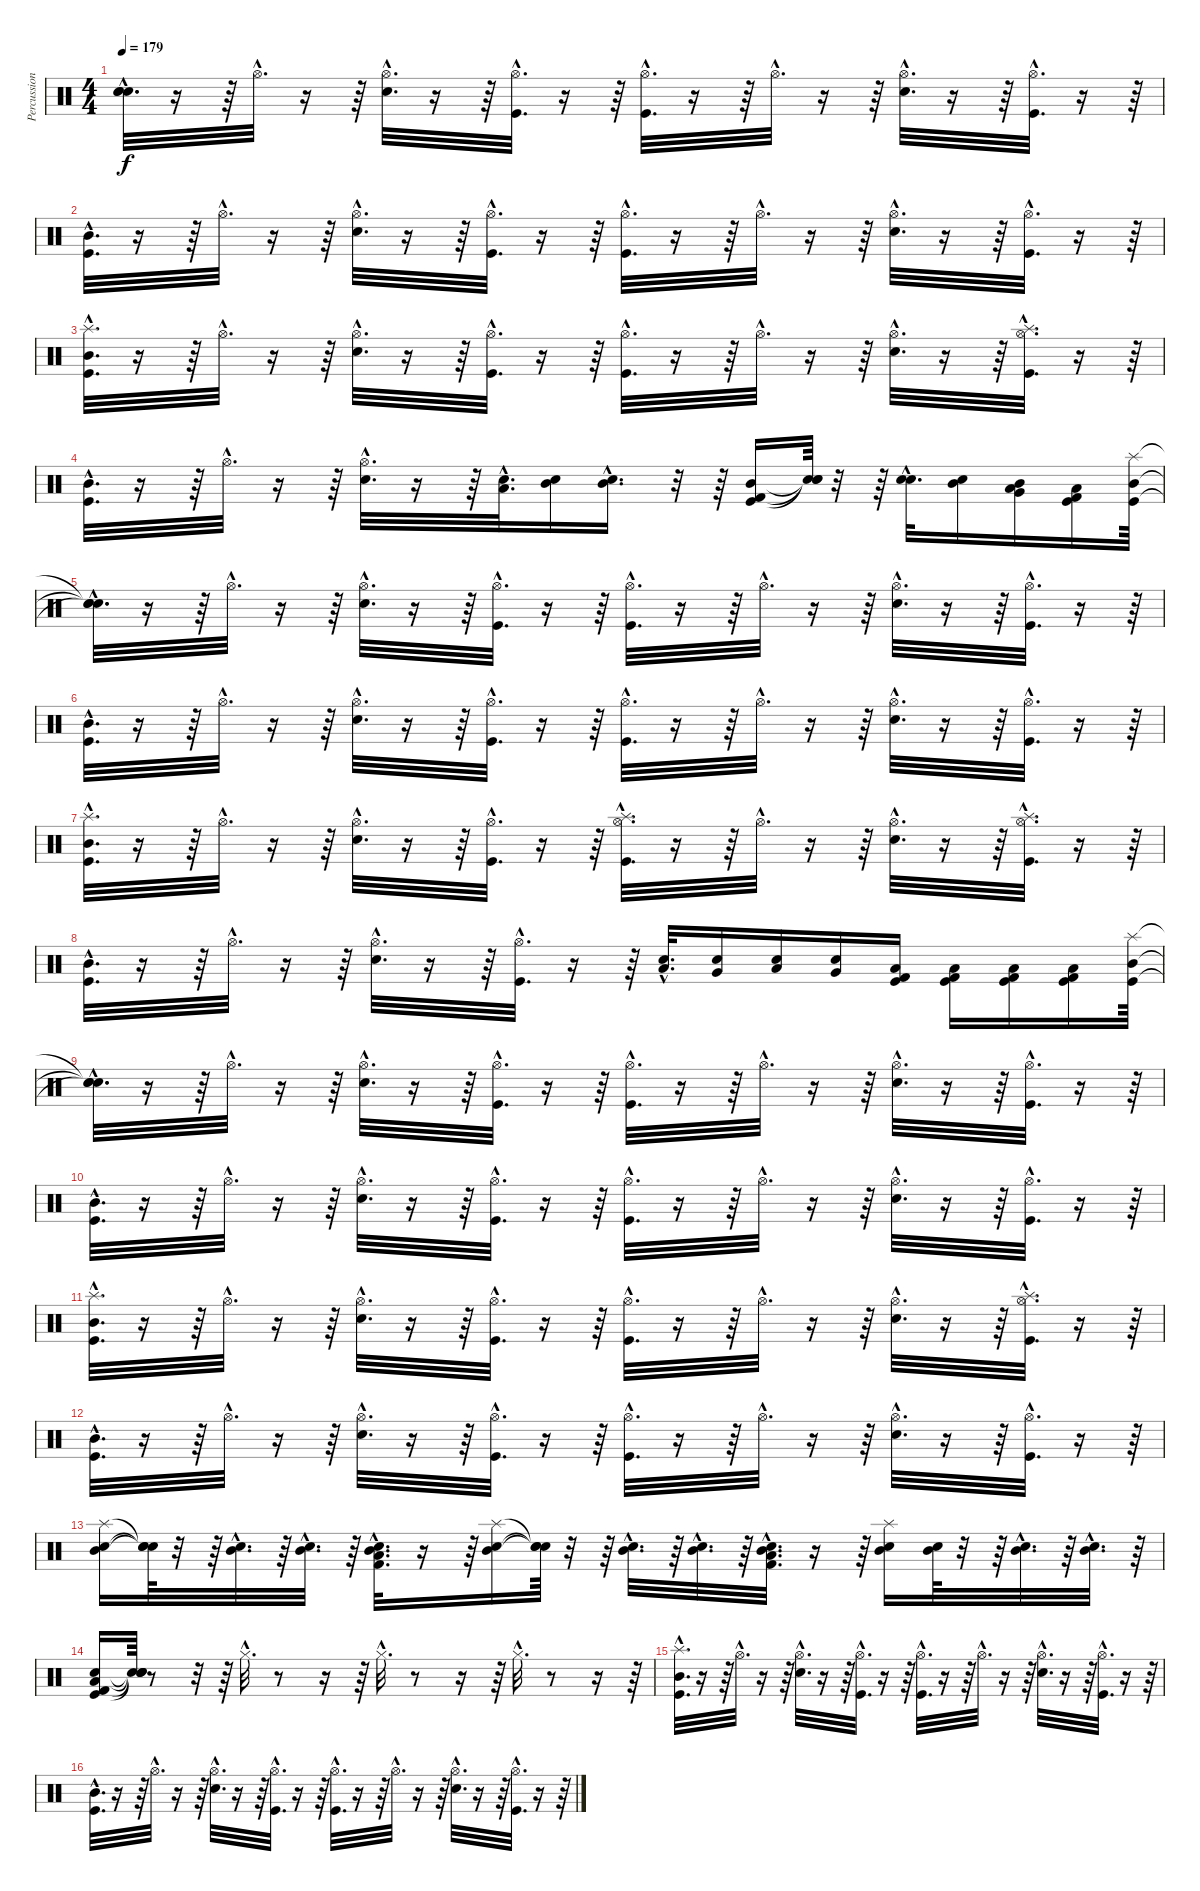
\track ("Percussion" "Percussion") {instrument percussion}
\staff {score}
\articulation defaults
\ts (4 4)
\tempo 179
\clef neutral
\ks c
("Snare (hit)"{hac t} "Snare (hit)"{hac t} "Snare (hit)"{hac t}).32{d dy f} r.16 r.64 "Hi-Hat (open)"{hac}.32{d} r.16 r.64 ("Hi-Hat (open)"{hac} "Snare (hit) 2"{hac}).32{d} r.16 r.64 ("Hi-Hat (open)"{hac} "Kick (hit)"{hac}).32{d} r.16 r.64 ("Hi-Hat (open)"{hac} "Kick (hit)"{hac}).32{d} r.16 r.64 "Hi-Hat (open)"{hac}.32{d} r.16 r.64 ("Hi-Hat (open)"{hac} "Snare (hit) 2"{hac}).32{d} r.16 r.64 ("Hi-Hat (open)"{hac} "Kick (hit)"{hac}).32{d} r.16 r.64 |
("Mid Tom (hit)"{hac} "Kick (hit)"{hac}).32{d} r.16 r.64 "Hi-Hat (open)"{hac}.32{d} r.16 r.64 ("Hi-Hat (open)"{hac} "Snare (hit) 2"{hac}).32{d} r.16 r.64 ("Hi-Hat (open)"{hac} "Kick (hit)"{hac}).32{d} r.16 r.64 ("Hi-Hat (open)"{hac} "Kick (hit)"{hac}).32{d} r.16 r.64 "Hi-Hat (open)"{hac}.32{d} r.16 r.64 ("Hi-Hat (open)"{hac} "Snare (hit) 2"{hac}).32{d} r.16 r.64 ("Hi-Hat (open)"{hac} "Kick (hit)"{hac}).32{d} r.16 r.64 |
("Splash (hit)"{hac} "Mid Tom (hit)"{hac} "Kick (hit)"{hac}).32{d} r.16 r.64 "Hi-Hat (open)"{hac}.32{d} r.16 r.64 ("Hi-Hat (open)"{hac} "Snare (hit) 2"{hac}).32{d} r.16 r.64 ("Hi-Hat (open)"{hac} "Kick (hit)"{hac}).32{d} r.16 r.64 ("Hi-Hat (open)"{hac} "Kick (hit)"{hac}).32{d} r.16 r.64 "Hi-Hat (open)"{hac}.32{d} r.16 r.64 ("Hi-Hat (open)"{hac} "Snare (hit) 2"{hac}).32{d} r.16 r.64 ("Splash (hit)"{hac} "Hi-Hat (open)"{hac} "Kick (hit)"{hac}).32{d} r.16 r.64 |
("Mid Tom (hit)"{hac} "Kick (hit)"{hac}).32{d} r.16 r.64 "Hi-Hat (open)"{hac}.32{d} r.16 r.64 ("Hi-Hat (open)"{hac} "Snare (hit) 2"{hac}).32{d} r.16 r.64 ("Snare (hit) 2"{hac} "Low Tom (hit)"{hac}).32{d} ("Snare (hit) 2" "Mid Tom (hit)").16 ("Snare (hit) 2"{hac} "Mid Tom (hit)"{hac}).16{d} r.32 r.64 ("Mid Tom (hit)" "Kick (hit)" "Kick (hit) 2").16 ("Snare (hit)"{t} "Snare (hit)"{t} "Snare (hit)"{t}).64 r.32 r.64 ("Electric Snare (hit)"{hac} "Snare (hit) 2"{hac}).32{d} ("Snare (hit) 2" "Mid Tom (hit)").16 ("Very Low Tom (hit)" "Mid Tom (hit)" "Low Floor Tom (hit)").16 ("Kick (hit)" "Kick (hit) 2" "Low Tom (hit)").16 ("Splash (hit)" "Mid Tom (hit)" "Kick (hit)").64 |
("Snare (hit)"{hac t} "Snare (hit)"{hac t} "Snare (hit)"{hac t}).32{d} r.16 r.64 "Hi-Hat (open)"{hac}.32{d} r.16 r.64 ("Hi-Hat (open)"{hac} "Snare (hit) 2"{hac}).32{d} r.16 r.64 ("Hi-Hat (open)"{hac} "Kick (hit)"{hac}).32{d} r.16 r.64 ("Hi-Hat (open)"{hac} "Kick (hit)"{hac}).32{d} r.16 r.64 "Hi-Hat (open)"{hac}.32{d} r.16 r.64 ("Hi-Hat (open)"{hac} "Snare (hit) 2"{hac}).32{d} r.16 r.64 ("Hi-Hat (open)"{hac} "Kick (hit)"{hac}).32{d} r.16 r.64 |
("Mid Tom (hit)"{hac} "Kick (hit)"{hac}).32{d} r.16 r.64 "Hi-Hat (open)"{hac}.32{d} r.16 r.64 ("Hi-Hat (open)"{hac} "Snare (hit) 2"{hac}).32{d} r.16 r.64 ("Hi-Hat (open)"{hac} "Kick (hit)"{hac}).32{d} r.16 r.64 ("Hi-Hat (open)"{hac} "Kick (hit)"{hac}).32{d} r.16 r.64 "Hi-Hat (open)"{hac}.32{d} r.16 r.64 ("Hi-Hat (open)"{hac} "Snare (hit) 2"{hac}).32{d} r.16 r.64 ("Hi-Hat (open)"{hac} "Kick (hit)"{hac}).32{d} r.16 r.64 |
("Splash (hit)"{hac} "Mid Tom (hit)"{hac} "Kick (hit)"{hac}).32{d} r.16 r.64 "Hi-Hat (open)"{hac}.32{d} r.16 r.64 ("Hi-Hat (open)"{hac} "Snare (hit) 2"{hac}).32{d} r.16 r.64 ("Hi-Hat (open)"{hac} "Kick (hit)"{hac}).32{d} r.16 r.64 ("Splash (hit)"{hac} "Hi-Hat (open)"{hac} "Kick (hit)"{hac}).32{d} r.16 r.64 "Hi-Hat (open)"{hac}.32{d} r.16 r.64 ("Hi-Hat (open)"{hac} "Snare (hit) 2"{hac}).32{d} r.16 r.64 ("Splash (hit)"{hac} "Hi-Hat (open)"{hac} "Kick (hit)"{hac}).32{d} r.16 r.64 |
("Mid Tom (hit)"{hac} "Kick (hit)"{hac}).32{d} r.16 r.64 "Hi-Hat (open)"{hac}.32{d} r.16 r.64 ("Hi-Hat (open)"{hac} "Snare (hit) 2"{hac}).32{d} r.16 r.64 ("Hi-Hat (open)"{hac} "Kick (hit)"{hac}).32{d} r.16 r.64 ("Electric Snare (hit)"{hac} "Low Tom (hit)"{hac}).32{d} ("Electric Snare (hit)" "Very Low Tom (hit)").16 ("Electric Snare (hit)" "Low Tom (hit)").16 ("Electric Snare (hit)" "Very Low Tom (hit)").16 ("Kick (hit)" "Kick (hit) 2" "Low Floor Tom (hit)").16 ("Kick (hit)" "Kick (hit) 2" "Low Floor Tom (hit)").16 ("Kick (hit)" "Low Floor Tom (hit)" "Kick (hit) 2").16 ("Kick (hit)" "Kick (hit) 2" "Low Floor Tom (hit)").16 ("Splash (hit)" "Mid Tom (hit)" "Kick (hit)").64 |
("Snare (hit)"{hac t} "Snare (hit)"{hac t} "Snare (hit)"{hac t}).32{d} r.16 r.64 "Hi-Hat (open)"{hac}.32{d} r.16 r.64 ("Hi-Hat (open)"{hac} "Snare (hit) 2"{hac}).32{d} r.16 r.64 ("Hi-Hat (open)"{hac} "Kick (hit)"{hac}).32{d} r.16 r.64 ("Hi-Hat (open)"{hac} "Kick (hit)"{hac}).32{d} r.16 r.64 "Hi-Hat (open)"{hac}.32{d} r.16 r.64 ("Hi-Hat (open)"{hac} "Snare (hit) 2"{hac}).32{d} r.16 r.64 ("Hi-Hat (open)"{hac} "Kick (hit)"{hac}).32{d} r.16 r.64 |
("Mid Tom (hit)"{hac} "Kick (hit)"{hac}).32{d} r.16 r.64 "Hi-Hat (open)"{hac}.32{d} r.16 r.64 ("Hi-Hat (open)"{hac} "Snare (hit) 2"{hac}).32{d} r.16 r.64 ("Hi-Hat (open)"{hac} "Kick (hit)"{hac}).32{d} r.16 r.64 ("Hi-Hat (open)"{hac} "Kick (hit)"{hac}).32{d} r.16 r.64 "Hi-Hat (open)"{hac}.32{d} r.16 r.64 ("Hi-Hat (open)"{hac} "Snare (hit) 2"{hac}).32{d} r.16 r.64 ("Hi-Hat (open)"{hac} "Kick (hit)"{hac}).32{d} r.16 r.64 |
("Splash (hit)"{hac} "Mid Tom (hit)"{hac} "Kick (hit)"{hac}).32{d} r.16 r.64 "Hi-Hat (open)"{hac}.32{d} r.16 r.64 ("Hi-Hat (open)"{hac} "Snare (hit) 2"{hac}).32{d} r.16 r.64 ("Hi-Hat (open)"{hac} "Kick (hit)"{hac}).32{d} r.16 r.64 ("Hi-Hat (open)"{hac} "Kick (hit)"{hac}).32{d} r.16 r.64 "Hi-Hat (open)"{hac}.32{d} r.16 r.64 ("Hi-Hat (open)"{hac} "Snare (hit) 2"{hac}).32{d} r.16 r.64 ("Splash (hit)"{hac} "Hi-Hat (open)"{hac} "Kick (hit)"{hac}).32{d} r.16 r.64 |
("Mid Tom (hit)"{hac} "Kick (hit)"{hac}).32{d} r.16 r.64 "Hi-Hat (open)"{hac}.32{d} r.16 r.64 ("Hi-Hat (open)"{hac} "Snare (hit) 2"{hac}).32{d} r.16 r.64 ("Hi-Hat (open)"{hac} "Kick (hit)"{hac}).32{d} r.16 r.64 ("Hi-Hat (open)"{hac} "Kick (hit)"{hac}).32{d} r.16 r.64 "Hi-Hat (open)"{hac}.32{d} r.16 r.64 ("Hi-Hat (open)"{hac} "Snare (hit) 2"{hac}).32{d} r.16 r.64 ("Hi-Hat (open)"{hac} "Kick (hit)"{hac}).32{d} r.16 r.64 |
("Mid Tom (hit)" "Snare (hit) 2" "Splash (hit)").16 ("Snare (hit)"{t} "Snare (hit)"{t} "Snare (hit)"{t}).64 r.32 r.64 ("Mid Tom (hit)"{hac} "Snare (hit) 2"{hac}).32{d} r.64 ("Mid Tom (hit)"{hac} "Snare (hit) 2"{hac}).32{d} r.64 ("Mid Tom (hit)"{hac} "Snare (hit) 2"{hac} "Kick (hit) 2"{hac} "Low Floor Tom (hit)"{hac}).32{d} r.16 r.64 ("Mid Tom (hit)" "Snare (hit) 2" "Splash (hit)").16 ("Snare (hit)"{t} "Snare (hit)"{t} "Snare (hit)"{t}).64 r.32 r.64 ("Mid Tom (hit)"{hac} "Snare (hit) 2"{hac}).32{d} r.64 ("Mid Tom (hit)"{hac} "Snare (hit) 2"{hac}).32{d} r.64 ("Mid Tom (hit)"{hac} "Low Floor Tom (hit)"{hac} "Snare (hit) 2"{hac} "Kick (hit) 2"{hac}).32{d} r.16 r.64 ("Mid Tom (hit)" "Snare (hit) 2" "Splash (hit)").16 ("Mid Tom (hit)" "Snare (hit) 2").64 r.32 r.64 ("Mid Tom (hit)"{hac} "Snare (hit) 2"{hac}).32{d} r.64 ("Mid Tom (hit)"{hac} "Snare (hit) 2"{hac}).32{d} r.64 |
("Kick (hit)" "Kick (hit) 2" "Snare (hit) 2" "Low Tom (hit)").16 ("Snare (hit)"{t} "Snare (hit)"{t} "Snare (hit)"{t} "Snare (hit)"{t}).64 r.8 r.32 r.64 "Hi-Hat (closed)"{hac}.32{d} r.8 r.16 r.64 "Hi-Hat (closed)"{hac}.32{d} r.8 r.16 r.64 "Hi-Hat (closed)"{hac}.32{d} r.8 r.16 r.64 |
("Splash (hit)"{hac} "Mid Tom (hit)"{hac} "Kick (hit)"{hac}).32{d} r.16 r.64 "Hi-Hat (open)"{hac}.32{d} r.16 r.64 ("Hi-Hat (open)"{hac} "Snare (hit) 2"{hac}).32{d} r.16 r.64 ("Hi-Hat (open)"{hac} "Kick (hit)"{hac}).32{d} r.16 r.64 ("Hi-Hat (open)"{hac} "Kick (hit)"{hac}).32{d} r.16 r.64 "Hi-Hat (open)"{hac}.32{d} r.16 r.64 ("Hi-Hat (open)"{hac} "Snare (hit) 2"{hac}).32{d} r.16 r.64 ("Hi-Hat (open)"{hac} "Kick (hit)"{hac}).32{d} r.16 r.64 |
("Mid Tom (hit)"{hac} "Kick (hit)"{hac}).32{d} r.16 r.64 "Hi-Hat (open)"{hac}.32{d} r.16 r.64 ("Hi-Hat (open)"{hac} "Snare (hit) 2"{hac}).32{d} r.16 r.64 ("Hi-Hat (open)"{hac} "Kick (hit)"{hac}).32{d} r.16 r.64 ("Hi-Hat (open)"{hac} "Kick (hit)"{hac}).32{d} r.16 r.64 "Hi-Hat (open)"{hac}.32{d} r.16 r.64 ("Hi-Hat (open)"{hac} "Snare (hit) 2"{hac}).32{d} r.16 r.64 ("Hi-Hat (open)"{hac} "Kick (hit)"{hac}).32{d} r.16 r.64
